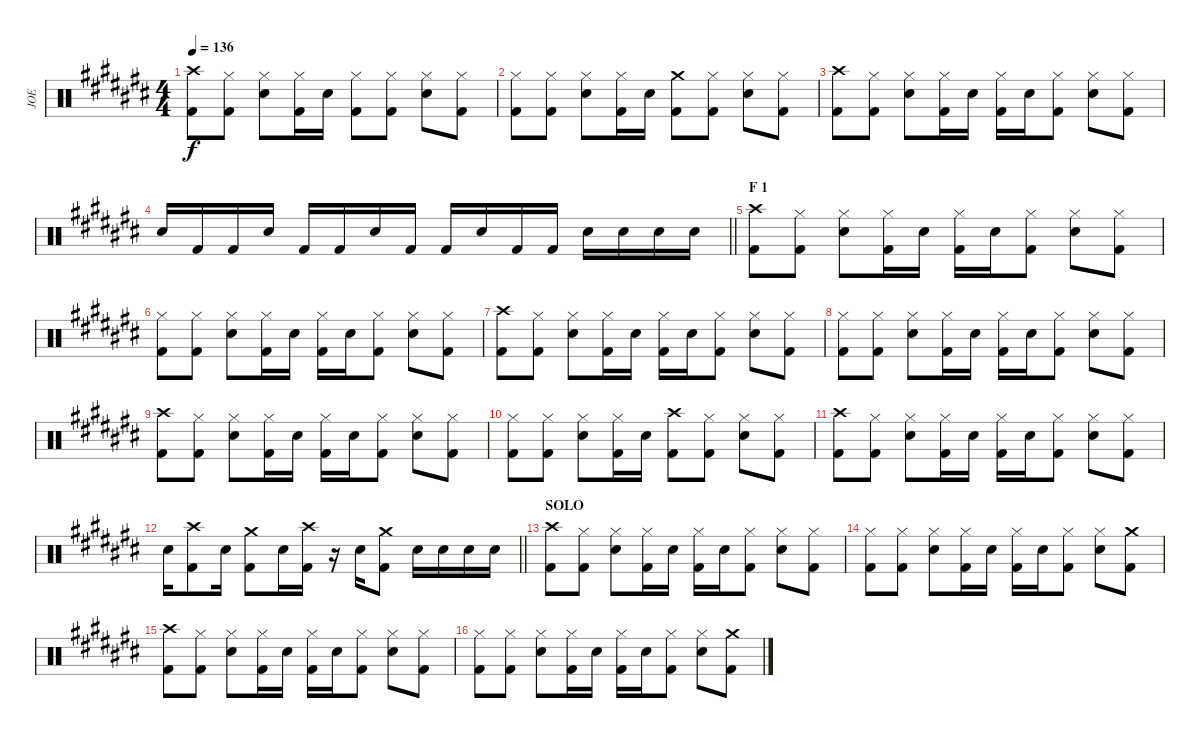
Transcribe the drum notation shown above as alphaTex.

\track ("JOE" "JOE") {instrument percussion}
\staff {score}
\articulation defaults
\ts (4 4)
\tempo 136
\clef neutral
\ks c#
("Crash high (hit)" "Kick (hit) 2").8{dy f} ("Hi-Hat (closed)" "Kick (hit) 2").8 ("Hi-Hat (closed)" "Snare (hit) 2").8 ("Hi-Hat (closed)" "Kick (hit) 2").16 "Snare (hit) 2".16 ("Hi-Hat (closed)" "Kick (hit) 2").8 ("Hi-Hat (closed)" "Kick (hit) 2").8 ("Hi-Hat (closed)" "Snare (hit) 2").8 ("Hi-Hat (closed)" "Kick (hit) 2").8 |
("Hi-Hat (closed)" "Kick (hit) 2").8 ("Hi-Hat (closed)" "Kick (hit) 2").8 ("Hi-Hat (closed)" "Snare (hit) 2").8 ("Hi-Hat (closed)" "Kick (hit) 2").16 "Snare (hit) 2".16 ("Crash medium (hit)" "Kick (hit) 2").8 ("Hi-Hat (closed)" "Kick (hit) 2").8 ("Hi-Hat (closed)" "Snare (hit) 2").8 ("Hi-Hat (closed)" "Kick (hit) 2").8 |
("Crash high (hit)" "Kick (hit) 2").8 ("Hi-Hat (closed)" "Kick (hit) 2").8 ("Hi-Hat (closed)" "Snare (hit) 2").8 ("Hi-Hat (closed)" "Kick (hit) 2").16 "Snare (hit) 2".16 ("Hi-Hat (closed)" "Kick (hit) 2").16 "Snare (hit) 2".16 ("Hi-Hat (closed)" "Kick (hit) 2").8 ("Hi-Hat (closed)" "Snare (hit) 2").8 ("Hi-Hat (closed)" "Kick (hit) 2").8 |
\barLineRight lightlight "Snare (hit) 2".16 "Kick (hit) 2".16 "Kick (hit) 2".16 "Snare (hit) 2".16 "Kick (hit) 2".16 "Kick (hit) 2".16 "Snare (hit) 2".16 "Kick (hit) 2".16 "Kick (hit) 2".16 "Snare (hit) 2".16 "Kick (hit) 2".16 "Kick (hit) 2".16 "Snare (hit) 2".16 "Snare (hit) 2".16 "Snare (hit) 2".16 "Snare (hit) 2".16
|
\section ("" "F 1")
("Crash high (hit)" "Kick (hit) 2").8 ("Hi-Hat (closed)" "Kick (hit) 2").8 ("Hi-Hat (closed)" "Snare (hit) 2").8 ("Hi-Hat (closed)" "Kick (hit) 2").16 "Snare (hit) 2".16 ("Hi-Hat (closed)" "Kick (hit) 2").16 "Snare (hit) 2".16 ("Hi-Hat (closed)" "Kick (hit) 2").8 ("Hi-Hat (closed)" "Snare (hit) 2").8 ("Hi-Hat (closed)" "Kick (hit) 2").8 |
("Hi-Hat (closed)" "Kick (hit) 2").8 ("Hi-Hat (closed)" "Kick (hit) 2").8 ("Hi-Hat (closed)" "Snare (hit) 2").8 ("Hi-Hat (closed)" "Kick (hit) 2").16 "Snare (hit) 2".16 ("Hi-Hat (closed)" "Kick (hit) 2").16 "Snare (hit) 2".16 ("Hi-Hat (closed)" "Kick (hit) 2").8 ("Hi-Hat (closed)" "Snare (hit) 2").8 ("Hi-Hat (closed)" "Kick (hit) 2").8 |
("Crash high (hit)" "Kick (hit) 2").8 ("Hi-Hat (closed)" "Kick (hit) 2").8 ("Hi-Hat (closed)" "Snare (hit) 2").8 ("Hi-Hat (closed)" "Kick (hit) 2").16 "Snare (hit) 2".16 ("Hi-Hat (closed)" "Kick (hit) 2").16 "Snare (hit) 2".16 ("Hi-Hat (closed)" "Kick (hit) 2").8 ("Hi-Hat (closed)" "Snare (hit) 2").8 ("Hi-Hat (closed)" "Kick (hit) 2").8 |
("Hi-Hat (closed)" "Kick (hit) 2").8 ("Hi-Hat (closed)" "Kick (hit) 2").8 ("Hi-Hat (closed)" "Snare (hit) 2").8 ("Hi-Hat (closed)" "Kick (hit) 2").16 "Snare (hit) 2".16 ("Hi-Hat (closed)" "Kick (hit) 2").16 "Snare (hit) 2".16 ("Hi-Hat (closed)" "Kick (hit) 2").8 ("Hi-Hat (closed)" "Snare (hit) 2").8 ("Hi-Hat (closed)" "Kick (hit) 2").8 |
("Crash high (hit)" "Kick (hit) 2").8 ("Hi-Hat (closed)" "Kick (hit) 2").8 ("Hi-Hat (closed)" "Snare (hit) 2").8 ("Hi-Hat (closed)" "Kick (hit) 2").16 "Snare (hit) 2".16 ("Hi-Hat (closed)" "Kick (hit) 2").16 "Snare (hit) 2".16 ("Hi-Hat (closed)" "Kick (hit) 2").8 ("Hi-Hat (closed)" "Snare (hit) 2").8 ("Hi-Hat (closed)" "Kick (hit) 2").8 |
("Hi-Hat (closed)" "Kick (hit) 2").8 ("Hi-Hat (closed)" "Kick (hit) 2").8 ("Hi-Hat (closed)" "Snare (hit) 2").8 ("Hi-Hat (closed)" "Kick (hit) 2").16 "Snare (hit) 2".16 ("Crash high (hit)" "Kick (hit) 2").8 ("Hi-Hat (closed)" "Kick (hit) 2").8 ("Hi-Hat (closed)" "Snare (hit) 2").8 ("Hi-Hat (closed)" "Kick (hit) 2").8 |
("Crash high (hit)" "Kick (hit) 2").8 ("Hi-Hat (closed)" "Kick (hit) 2").8 ("Hi-Hat (closed)" "Snare (hit) 2").8 ("Hi-Hat (closed)" "Kick (hit) 2").16 "Snare (hit) 2".16 ("Hi-Hat (closed)" "Kick (hit) 2").16 "Snare (hit) 2".16 ("Hi-Hat (closed)" "Kick (hit) 2").8 ("Hi-Hat (closed)" "Snare (hit) 2").8 ("Hi-Hat (closed)" "Kick (hit) 2").8 |
\barLineRight lightlight "Snare (hit) 2".16
("Crash high (hit)" "Kick (hit) 2").8 "Snare (hit) 2".16 ("Crash medium (hit)" "Kick (hit) 2").8 "Snare (hit) 2".16 ("Crash high (hit)" "Kick (hit) 2").16 r.16 "Snare (hit) 2".16 ("Crash medium (hit)" "Kick (hit) 2").8 "Snare (hit) 2".16 "Snare (hit) 2".16 "Snare (hit) 2".16 "Snare (hit) 2".16 |
\section ("" "SOLO")
("Crash high (hit)" "Kick (hit) 2").8 ("Hi-Hat (closed)" "Kick (hit) 2").8 ("Hi-Hat (closed)" "Snare (hit) 2").8 ("Hi-Hat (closed)" "Kick (hit) 2").16 "Snare (hit) 2".16 ("Hi-Hat (closed)" "Kick (hit) 2").16 "Snare (hit) 2".16 ("Hi-Hat (closed)" "Kick (hit) 2").8 ("Hi-Hat (closed)" "Snare (hit) 2").8 ("Hi-Hat (closed)" "Kick (hit) 2").8 |
("Hi-Hat (closed)" "Kick (hit) 2").8 ("Hi-Hat (closed)" "Kick (hit) 2").8 ("Hi-Hat (closed)" "Snare (hit) 2").8 ("Hi-Hat (closed)" "Kick (hit) 2").16 "Snare (hit) 2".16 ("Hi-Hat (closed)" "Kick (hit) 2").16 "Snare (hit) 2".16 ("Hi-Hat (closed)" "Kick (hit) 2").8 ("Hi-Hat (closed)" "Snare (hit) 2").8 ("Crash medium (hit)" "Kick (hit) 2").8 |
("Crash high (hit)" "Kick (hit) 2").8 ("Hi-Hat (closed)" "Kick (hit) 2").8 ("Hi-Hat (closed)" "Snare (hit) 2").8 ("Hi-Hat (closed)" "Kick (hit) 2").16 "Snare (hit) 2".16 ("Hi-Hat (closed)" "Kick (hit) 2").16 "Snare (hit) 2".16 ("Hi-Hat (closed)" "Kick (hit) 2").8 ("Hi-Hat (closed)" "Snare (hit) 2").8 ("Hi-Hat (closed)" "Kick (hit) 2").8 |
("Hi-Hat (closed)" "Kick (hit) 2").8 ("Hi-Hat (closed)" "Kick (hit) 2").8 ("Hi-Hat (closed)" "Snare (hit) 2").8 ("Hi-Hat (closed)" "Kick (hit) 2").16 "Snare (hit) 2".16 ("Hi-Hat (closed)" "Kick (hit) 2").16 "Snare (hit) 2".16 ("Hi-Hat (closed)" "Kick (hit) 2").8 ("Hi-Hat (closed)" "Snare (hit) 2").8 ("Crash medium (hit)" "Kick (hit) 2").8
